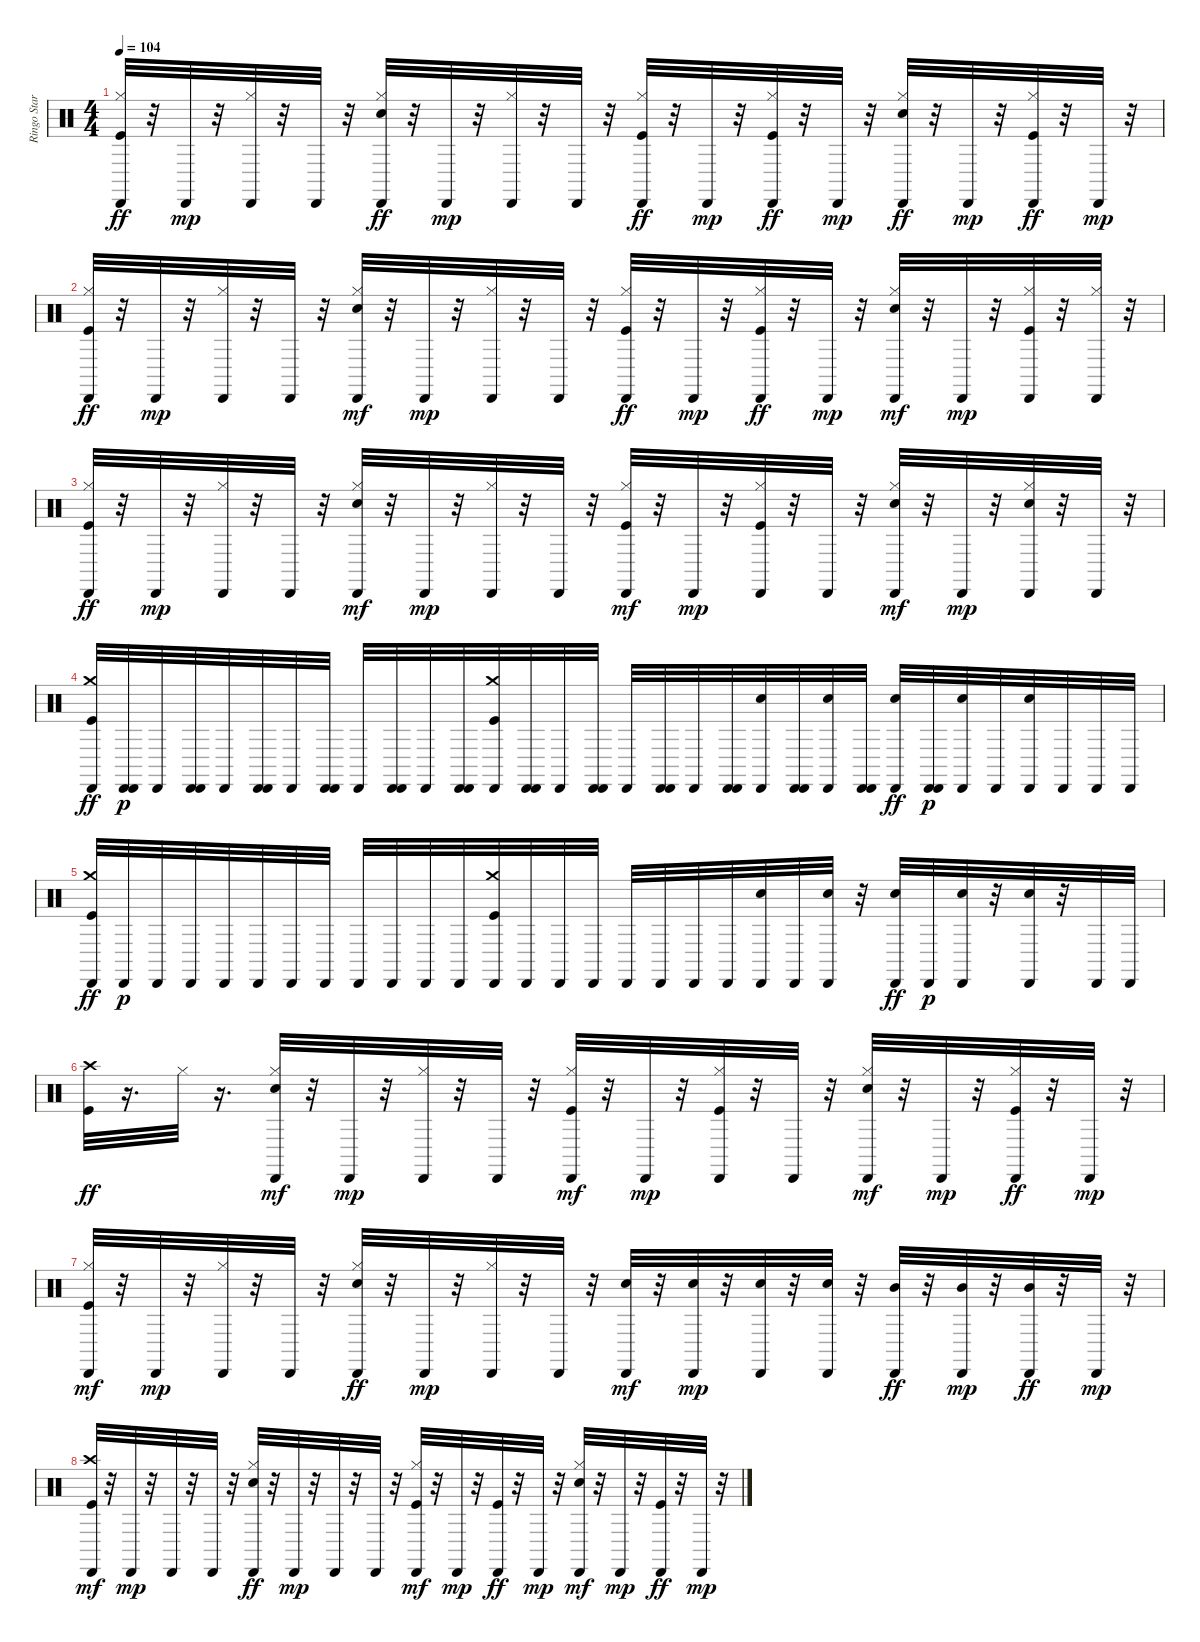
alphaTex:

\track ("Ringo Starr - Drums" "Ringo Star") {instrument percussion}
\staff {score}
\articulation defaults
\ts (4 4)
\tempo 104
\clef neutral
\ks c
("Hi-Hat (closed)" "Cabasa (hit)" "Kick (hit)").32{dy ff} r.32 "Cabasa (hit)".32{dy mp} r.32 ("Hi-Hat (closed)" "Cabasa (hit)").32 r.32 "Cabasa (hit)".32 r.32 ("Hi-Hat (closed)" "Cabasa (hit)" "Snare (hit) 2").32{dy ff} r.32 "Cabasa (hit)".32{dy mp} r.32 ("Hi-Hat (closed)" "Cabasa (hit)").32 r.32 "Cabasa (hit)".32 r.32 ("Hi-Hat (closed)" "Cabasa (hit)" "Kick (hit)").32{dy ff} r.32 "Cabasa (hit)".32{dy mp} r.32 ("Hi-Hat (closed)" "Cabasa (hit)" "Kick (hit)").32{dy ff} r.32 "Cabasa (hit)".32{dy mp} r.32 ("Hi-Hat (closed)" "Cabasa (hit)" "Snare (hit) 2").32{dy ff} r.32 "Cabasa (hit)".32{dy mp} r.32 ("Hi-Hat (closed)" "Cabasa (hit)" "Kick (hit)").32{dy ff} r.32 "Cabasa (hit)".32{dy mp} r.32 |
("Hi-Hat (closed)" "Cabasa (hit)" "Kick (hit)").32{dy ff} r.32 "Cabasa (hit)".32{dy mp} r.32 ("Hi-Hat (closed)" "Cabasa (hit)").32 r.32 "Cabasa (hit)".32 r.32 ("Hi-Hat (closed)" "Snare (hit) 2" "Cabasa (hit)").32{dy mf} r.32 "Cabasa (hit)".32{dy mp} r.32 ("Hi-Hat (closed)" "Cabasa (hit)").32 r.32 "Cabasa (hit)".32 r.32 ("Hi-Hat (closed)" "Cabasa (hit)" "Kick (hit)").32{dy ff} r.32 "Cabasa (hit)".32{dy mp} r.32 ("Hi-Hat (closed)" "Cabasa (hit)" "Kick (hit)").32{dy ff} r.32 "Cabasa (hit)".32{dy mp} r.32 ("Hi-Hat (closed)" "Snare (hit) 2" "Cabasa (hit)").32{dy mf} r.32 "Cabasa (hit)".32{dy mp} r.32 ("Hi-Hat (closed)" "Kick (hit)" "Cabasa (hit)").32 r.32 ("Hi-Hat (closed)" "Cabasa (hit)").32 r.32 |
("Hi-Hat (closed)" "Cabasa (hit)" "Kick (hit)").32{dy ff} r.32 "Cabasa (hit)".32{dy mp} r.32 ("Hi-Hat (closed)" "Cabasa (hit)").32 r.32 "Cabasa (hit)".32 r.32 ("Hi-Hat (closed)" "Snare (hit) 2" "Cabasa (hit)").32{dy mf} r.32 "Cabasa (hit)".32{dy mp} r.32 ("Hi-Hat (closed)" "Cabasa (hit)").32 r.32 "Cabasa (hit)".32 r.32 ("Hi-Hat (closed)" "Kick (hit)" "Cabasa (hit)").32{dy mf} r.32 "Cabasa (hit)".32{dy mp} r.32 ("Hi-Hat (closed)" "Kick (hit)" "Cabasa (hit)").32 r.32 "Cabasa (hit)".32 r.32 ("Hi-Hat (closed)" "Snare (hit) 2" "Cabasa (hit)").32{dy mf} r.32 "Cabasa (hit)".32{dy mp} r.32 ("Hi-Hat (closed)" "Cabasa (hit)" "Snare (hit) 2").32 r.32 "Cabasa (hit)".32 r.32 |
("Crash medium (hit)" "Cabasa (hit)" "Kick (hit)").32{dy ff} ("Cabasa (hit)" "Cabasa (hit)").32{dy p} "Cabasa (hit)".32 ("Cabasa (hit)" "Cabasa (hit)").32 "Cabasa (hit)".32 ("Cabasa (hit)" "Cabasa (hit)").32 "Cabasa (hit)".32 ("Cabasa (hit)" "Cabasa (hit)").32 "Cabasa (hit)".32 ("Cabasa (hit)" "Cabasa (hit)").32 "Cabasa (hit)".32 ("Cabasa (hit)" "Cabasa (hit)").32 ("Kick (hit)" "Cabasa (hit)" "Crash medium (hit)").32 ("Cabasa (hit)" "Cabasa (hit)").32 "Cabasa (hit)".32 ("Cabasa (hit)" "Cabasa (hit)").32 "Cabasa (hit)".32 ("Cabasa (hit)" "Cabasa (hit)").32 "Cabasa (hit)".32 ("Cabasa (hit)" "Cabasa (hit)").32 ("Snare (hit) 2" "Cabasa (hit)").32 ("Cabasa (hit)" "Cabasa (hit)").32 ("Cabasa (hit)" "Snare (hit) 2").32 ("Cabasa (hit)" "Cabasa (hit)").32 ("Cabasa (hit)" "Snare (hit) 2").32{dy ff} ("Cabasa (hit)" "Cabasa (hit)").32{dy p} ("Snare (hit) 2" "Cabasa (hit)").32 "Cabasa (hit)".32 ("Snare (hit) 2" "Cabasa (hit)").32 "Cabasa (hit)".32 "Cabasa (hit)".32 "Cabasa (hit)".32 |
("Crash medium (hit)" "Cabasa (hit)" "Kick (hit)").32{dy ff} "Cabasa (hit)".32{dy p} "Cabasa (hit)".32 "Cabasa (hit)".32 "Cabasa (hit)".32 "Cabasa (hit)".32 "Cabasa (hit)".32 "Cabasa (hit)".32 "Cabasa (hit)".32 "Cabasa (hit)".32 "Cabasa (hit)".32 "Cabasa (hit)".32 ("Kick (hit)" "Cabasa (hit)" "Crash medium (hit)").32 "Cabasa (hit)".32 "Cabasa (hit)".32 "Cabasa (hit)".32 "Cabasa (hit)".32 "Cabasa (hit)".32 "Cabasa (hit)".32 "Cabasa (hit)".32 ("Cabasa (hit)" "Snare (hit) 2").32 "Cabasa (hit)".32 ("Snare (hit) 2" "Cabasa (hit)").32 r.32 ("Cabasa (hit)" "Snare (hit) 2").32{dy ff} "Cabasa (hit)".32{dy p} ("Snare (hit) 2" "Cabasa (hit)").32 r.32 ("Cabasa (hit)" "Snare (hit) 2").32 r.32 "Cabasa (hit)".32 "Cabasa (hit)".32 |
("Kick (hit)" "Crash high (hit)").32{dy ff} r.16{d} "Hi-Hat (closed)".32 r.16{d} ("Hi-Hat (closed)" "Snare (hit) 2" "Cabasa (hit)").32{dy mf} r.32 "Cabasa (hit)".32{dy mp} r.32 ("Hi-Hat (closed)" "Cabasa (hit)").32 r.32 "Cabasa (hit)".32 r.32 ("Hi-Hat (closed)" "Kick (hit)" "Cabasa (hit)").32{dy mf} r.32 "Cabasa (hit)".32{dy mp} r.32 ("Hi-Hat (closed)" "Kick (hit)" "Cabasa (hit)").32 r.32 "Cabasa (hit)".32 r.32 ("Hi-Hat (closed)" "Snare (hit) 2" "Cabasa (hit)").32{dy mf} r.32 "Cabasa (hit)".32{dy mp} r.32 ("Hi-Hat (closed)" "Cabasa (hit)" "Kick (hit)").32{dy ff} r.32 "Cabasa (hit)".32{dy mp} r.32 |
("Hi-Hat (closed)" "Kick (hit)" "Cabasa (hit)").32{dy mf} r.32 "Cabasa (hit)".32{dy mp} r.32 ("Hi-Hat (closed)" "Cabasa (hit)").32 r.32 "Cabasa (hit)".32 r.32 ("Hi-Hat (closed)" "Cabasa (hit)" "Snare (hit) 2").32{dy ff} r.32 "Cabasa (hit)".32{dy mp} r.32 ("Hi-Hat (closed)" "Cabasa (hit)").32 r.32 "Cabasa (hit)".32 r.32 ("Snare (hit) 2" "Cabasa (hit)").32{dy mf} r.32 ("Cabasa (hit)" "Snare (hit) 2").32{dy mp} r.32 ("Cabasa (hit)" "Snare (hit) 2").32 r.32 ("Snare (hit) 2" "Cabasa (hit)").32 r.32 ("Cabasa (hit)" "Mid Tom (hit)").32{dy ff} r.32 ("Mid Tom (hit)" "Cabasa (hit)").32{dy mp} r.32 ("Cabasa (hit)" "Mid Tom (hit)").32{dy ff} r.32 "Cabasa (hit)".32{dy mp} r.32 |
("Kick (hit)" "Crash high (hit)" "Cabasa (hit)").32{dy mf} r.32 "Cabasa (hit)".32{dy mp} r.32 "Cabasa (hit)".32 r.32 "Cabasa (hit)".32 r.32 ("Hi-Hat (closed)" "Cabasa (hit)" "Snare (hit) 2").32{dy ff} r.32 "Cabasa (hit)".32{dy mp} r.32 "Cabasa (hit)".32 r.32 "Cabasa (hit)".32 r.32 ("Hi-Hat (closed)" "Kick (hit)" "Cabasa (hit)").32{dy mf} r.32 "Cabasa (hit)".32{dy mp} r.32 ("Cabasa (hit)" "Kick (hit)").32{dy ff} r.32 "Cabasa (hit)".32{dy mp} r.32 ("Hi-Hat (closed)" "Snare (hit) 2" "Cabasa (hit)").32{dy mf} r.32 "Cabasa (hit)".32{dy mp} r.32 ("Cabasa (hit)" "Kick (hit)").32{dy ff} r.32 "Cabasa (hit)".32{dy mp} r.32
